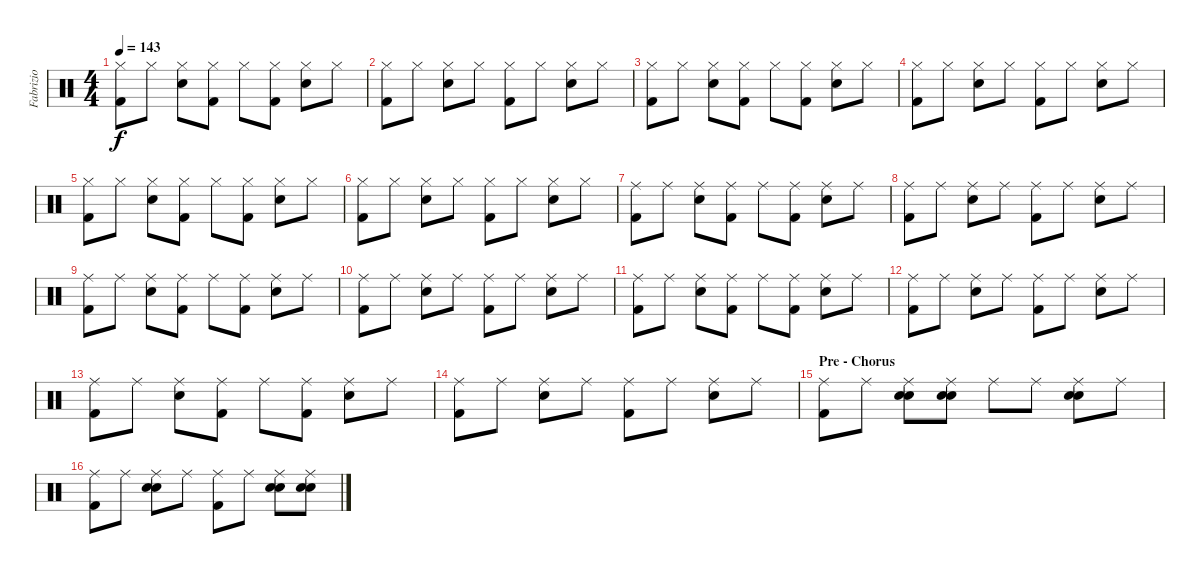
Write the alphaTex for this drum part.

\track ("Fabrizio" "Fabrizio") {instrument percussion}
\staff {score}
\articulation defaults
\ts (4 4)
\tempo 143
\clef neutral
\ks c
("Hi-Hat (closed)" "Kick (hit) 2").8{dy f} "Hi-Hat (closed)".8 ("Hi-Hat (closed)" "Electric Snare (hit)").8 ("Hi-Hat (closed)" "Kick (hit) 2").8 "Hi-Hat (closed)".8 ("Hi-Hat (closed)" "Kick (hit) 2").8 ("Hi-Hat (closed)" "Electric Snare (hit)").8 "Hi-Hat (closed)".8 |
("Hi-Hat (closed)" "Kick (hit) 2").8 "Hi-Hat (closed)".8 ("Hi-Hat (closed)" "Electric Snare (hit)").8 "Hi-Hat (closed)".8 ("Hi-Hat (closed)" "Kick (hit) 2").8 "Hi-Hat (closed)".8 ("Hi-Hat (closed)" "Electric Snare (hit)").8 "Hi-Hat (closed)".8 |
("Hi-Hat (closed)" "Kick (hit) 2").8 "Hi-Hat (closed)".8 ("Hi-Hat (closed)" "Electric Snare (hit)").8 ("Hi-Hat (closed)" "Kick (hit) 2").8 "Hi-Hat (closed)".8 ("Hi-Hat (closed)" "Kick (hit) 2").8 ("Hi-Hat (closed)" "Electric Snare (hit)").8 "Hi-Hat (closed)".8 |
("Hi-Hat (closed)" "Kick (hit) 2").8 "Hi-Hat (closed)".8 ("Hi-Hat (closed)" "Electric Snare (hit)").8 "Hi-Hat (closed)".8 ("Hi-Hat (closed)" "Kick (hit) 2").8 "Hi-Hat (closed)".8 ("Hi-Hat (closed)" "Electric Snare (hit)").8 "Hi-Hat (closed)".8 |
("Hi-Hat (closed)" "Kick (hit) 2").8 "Hi-Hat (closed)".8 ("Hi-Hat (closed)" "Electric Snare (hit)").8 ("Hi-Hat (closed)" "Kick (hit) 2").8 "Hi-Hat (closed)".8 ("Hi-Hat (closed)" "Kick (hit) 2").8 ("Hi-Hat (closed)" "Electric Snare (hit)").8 "Hi-Hat (closed)".8 |
("Hi-Hat (closed)" "Kick (hit) 2").8 "Hi-Hat (closed)".8 ("Hi-Hat (closed)" "Electric Snare (hit)").8 "Hi-Hat (closed)".8 ("Hi-Hat (closed)" "Kick (hit) 2").8 "Hi-Hat (closed)".8 ("Hi-Hat (closed)" "Electric Snare (hit)").8 "Hi-Hat (closed)".8 |
("Ride (middle)" "Kick (hit) 2").8 "Ride (middle)".8 ("Ride (middle)" "Electric Snare (hit)").8 ("Ride (middle)" "Kick (hit) 2").8 "Ride (middle)".8 ("Ride (middle)" "Kick (hit) 2").8 ("Ride (middle)" "Electric Snare (hit)").8 "Ride (middle)".8 |
("Ride (middle)" "Kick (hit) 2").8 "Ride (middle)".8 ("Ride (middle)" "Electric Snare (hit)").8 "Ride (middle)".8 ("Ride (middle)" "Kick (hit) 2").8 "Ride (middle)".8 ("Ride (middle)" "Electric Snare (hit)").8 "Ride (middle)".8 |
("Ride (middle)" "Kick (hit) 2").8 "Ride (middle)".8 ("Ride (middle)" "Electric Snare (hit)").8 ("Ride (middle)" "Kick (hit) 2").8 "Ride (middle)".8 ("Ride (middle)" "Kick (hit) 2").8 ("Ride (middle)" "Electric Snare (hit)").8 "Ride (middle)".8 |
("Ride (middle)" "Kick (hit) 2").8 "Ride (middle)".8 ("Ride (middle)" "Electric Snare (hit)").8 "Ride (middle)".8 ("Ride (middle)" "Kick (hit) 2").8 "Ride (middle)".8 ("Ride (middle)" "Electric Snare (hit)").8 "Ride (middle)".8 |
("Ride (middle)" "Kick (hit) 2").8 "Ride (middle)".8 ("Ride (middle)" "Electric Snare (hit)").8 ("Ride (middle)" "Kick (hit) 2").8 "Ride (middle)".8 ("Ride (middle)" "Kick (hit) 2").8 ("Ride (middle)" "Electric Snare (hit)").8 "Ride (middle)".8 |
("Ride (middle)" "Kick (hit) 2").8 "Ride (middle)".8 ("Ride (middle)" "Electric Snare (hit)").8 "Ride (middle)".8 ("Ride (middle)" "Kick (hit) 2").8 "Ride (middle)".8 ("Ride (middle)" "Electric Snare (hit)").8 "Ride (middle)".8 |
("Ride (middle)" "Kick (hit) 2").8 "Ride (middle)".8 ("Ride (middle)" "Electric Snare (hit)").8 ("Ride (middle)" "Kick (hit) 2").8 "Ride (middle)".8 ("Ride (middle)" "Kick (hit) 2").8 ("Ride (middle)" "Electric Snare (hit)").8 "Ride (middle)".8 |
("Ride (middle)" "Kick (hit) 2").8 "Ride (middle)".8 ("Ride (middle)" "Electric Snare (hit)").8 "Ride (middle)".8 ("Ride (middle)" "Kick (hit) 2").8 "Ride (middle)".8 ("Ride (middle)" "Electric Snare (hit)").8 "Ride (middle)".8 |
\section ("" "Pre - Chorus")
("Ride (middle)" "Kick (hit) 2").8 "Ride (middle)".8 ("Ride (middle)" "Electric Snare (hit)" "Hand Clap (hit)").8 ("Ride (middle)" "Electric Snare (hit)" "Hand Clap (hit)").8 "Ride (middle)".8 "Ride (middle)".8 ("Ride (middle)" "Electric Snare (hit)" "Hand Clap (hit)").8 "Ride (middle)".8 |
("Ride (middle)" "Kick (hit) 2").8 "Ride (middle)".8 ("Ride (middle)" "Electric Snare (hit)" "Hand Clap (hit)").8 "Ride (middle)".8 ("Ride (middle)" "Kick (hit) 2").8 "Ride (middle)".8 ("Ride (middle)" "Electric Snare (hit)" "Hand Clap (hit)").8 ("Ride (middle)" "Electric Snare (hit)" "Hand Clap (hit)").8
